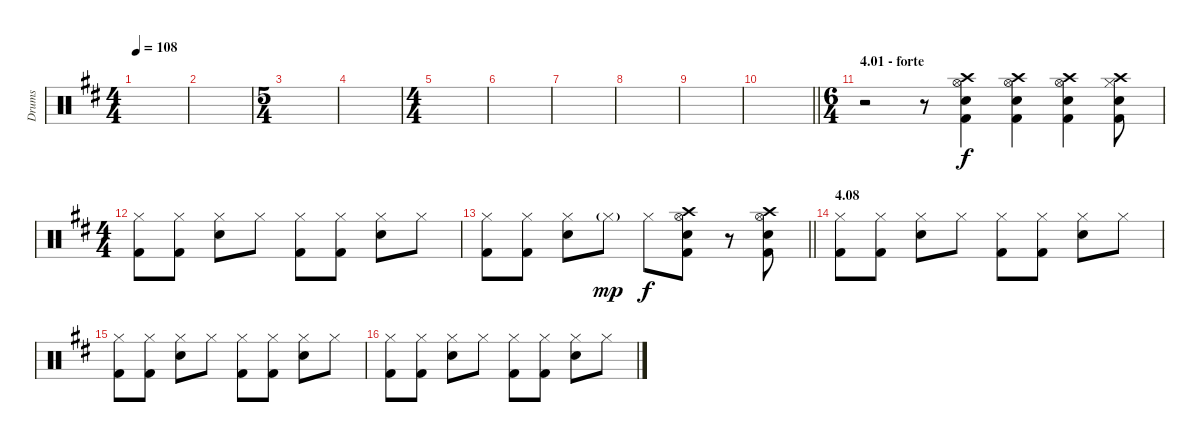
\track ("Drums" "Drums") {instrument percussion}
\staff {score}
\articulation defaults
\ts (4 4)
\tempo 108
\clef neutral
\ks d
|
|
\ts (5 4)
|
|
\ts (4 4)
|
|
|
|
|
\barLineRight lightlight
|
\ts (6 4)
\section ("" "4.01 - forte")
r.2 r.8 ("Crash high (hit)" "Hi-Hat (open)" "Electric Snare (hit)" "Kick (hit) 2").4 ("Crash high (hit)" "Hi-Hat (open)" "Electric Snare (hit)" "Kick (hit) 2").4 ("Crash high (hit)" "Hi-Hat (open)" "Electric Snare (hit)" "Kick (hit) 2").4 ("Crash high (hit)" "Hi-Hat (closed)" "Electric Snare (hit)" "Kick (hit) 2").8 |
\ts (4 4)
("Hi-Hat (closed)" "Kick (hit) 2").8 ("Hi-Hat (closed)" "Kick (hit) 2").8 ("Hi-Hat (closed)" "Electric Snare (hit)").8 "Hi-Hat (closed)".8 ("Hi-Hat (closed)" "Kick (hit) 2").8 ("Hi-Hat (closed)" "Kick (hit) 2").8 ("Hi-Hat (closed)" "Electric Snare (hit)").8 "Hi-Hat (closed)".8 |
\barLineRight lightlight
("Hi-Hat (closed)" "Kick (hit) 2").8 ("Hi-Hat (closed)" "Kick (hit) 2").8 ("Hi-Hat (closed)" "Electric Snare (hit)").8 "Hi-Hat (closed)"{g}.8{dy mp} "Hi-Hat (closed)".8{dy f} ("Crash high (hit)" "Hi-Hat (open)" "Electric Snare (hit)" "Kick (hit) 2").8 r.8 ("Crash high (hit)" "Hi-Hat (open)" "Electric Snare (hit)" "Kick (hit) 2").8 |
\section ("" "4.08")
("Hi-Hat (closed)" "Kick (hit) 2").8 ("Hi-Hat (closed)" "Kick (hit) 2").8 ("Hi-Hat (closed)" "Electric Snare (hit)").8 "Hi-Hat (closed)".8 ("Hi-Hat (closed)" "Kick (hit) 2").8 ("Hi-Hat (closed)" "Kick (hit) 2").8 ("Hi-Hat (closed)" "Electric Snare (hit)").8 "Hi-Hat (closed)".8 |
("Hi-Hat (closed)" "Kick (hit) 2").8 ("Hi-Hat (closed)" "Kick (hit) 2").8 ("Hi-Hat (closed)" "Electric Snare (hit)").8 "Hi-Hat (closed)".8 ("Hi-Hat (closed)" "Kick (hit) 2").8 ("Hi-Hat (closed)" "Kick (hit) 2").8 ("Hi-Hat (closed)" "Electric Snare (hit)").8 "Hi-Hat (closed)".8 |
("Hi-Hat (closed)" "Kick (hit) 2").8 ("Hi-Hat (closed)" "Kick (hit) 2").8 ("Hi-Hat (closed)" "Electric Snare (hit)").8 "Hi-Hat (closed)".8 ("Hi-Hat (closed)" "Kick (hit) 2").8 ("Hi-Hat (closed)" "Kick (hit) 2").8 ("Hi-Hat (closed)" "Electric Snare (hit)").8 "Hi-Hat (closed)".8
